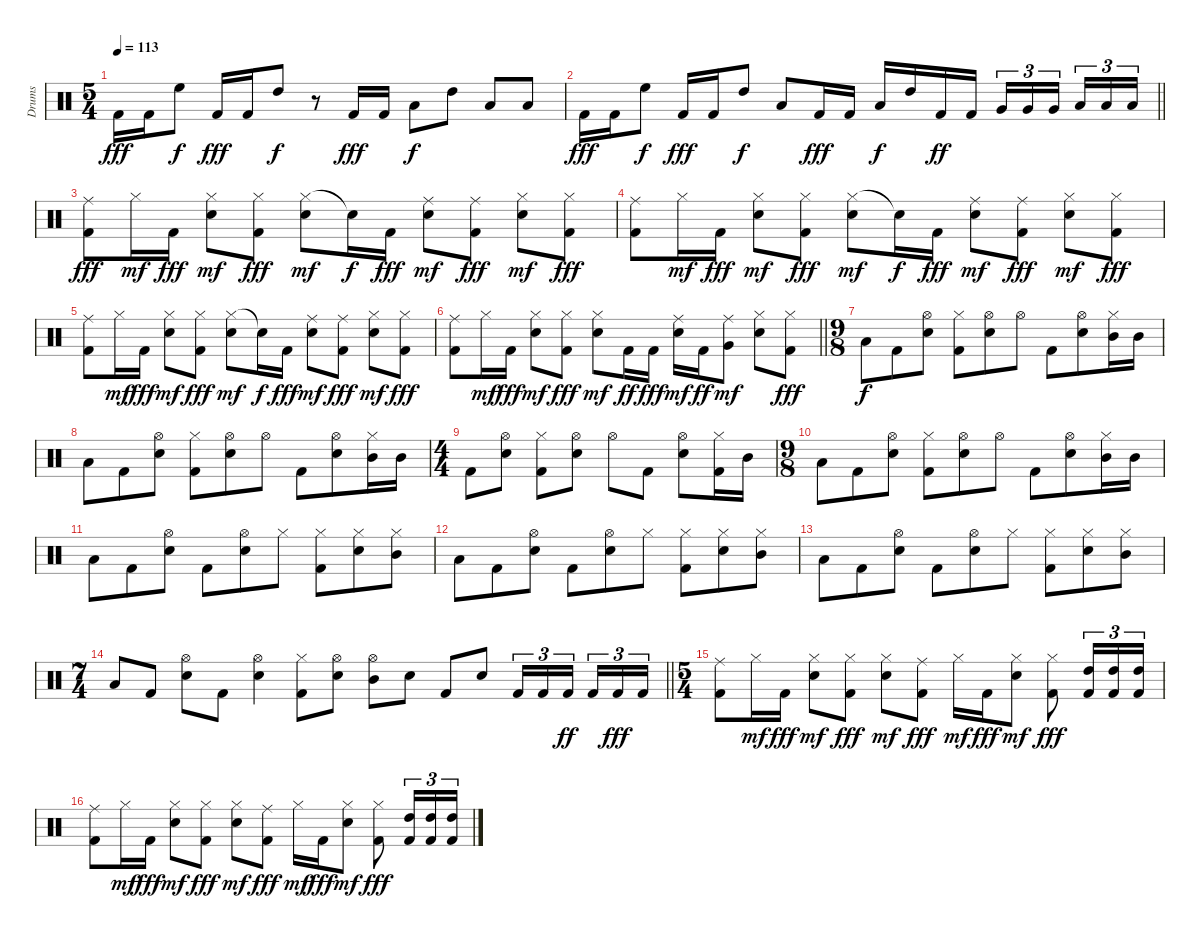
\track ("Drums" "Drums") {instrument percussion}
\staff {score}
\articulation defaults
\ts (5 4)
\tempo 113
\clef neutral
\ks c "Kick (hit) 2".16{dy fff} "Kick (hit) 2".16 "High Floor Tom (hit)".8{dy f} "Kick (hit) 2".16{dy fff} "Kick (hit) 2".16 "High Tom (hit)".8{dy f}
r.8 "Kick (hit) 2".16{dy fff} "Kick (hit) 2".16 "Low Tom (hit)".8{dy f} "High Tom (hit)".8 "Low Tom (hit)".8 "Low Floor Tom (hit)".8 |
\barLineRight lightlight "Kick (hit) 2".16{dy fff} "Kick (hit) 2".16 "High Floor Tom (hit)".8{dy f} "Kick (hit) 2".16{dy fff} "Kick (hit) 2".16 "High Tom (hit)".8{dy f} "Low Floor Tom (hit)".8 "Kick (hit) 2".16{dy fff} "Kick (hit) 2".16 "Low Tom (hit)".16{dy f} "High Tom (hit)".16 "Kick (hit) 2".16{dy ff} "Kick (hit) 2".16 "Very Low Tom (hit)".16{tu (3 2)} "Very Low Tom (hit)".16{tu (3 2)} "Very Low Tom (hit)".16{tu (3 2) beam splitsecondary} "Low Floor Tom (hit)".16{tu (3 2)} "Low Floor Tom (hit)".16{tu (3 2)} "Low Floor Tom (hit)".16{tu (3 2)}
|
\section ("" "")
("Ride (middle)" "Kick (hit) 2").8{dy fff} "Hi-Hat (closed)".16{dy mf} "Kick (hit) 2".16{dy fff} ("Hi-Hat (closed)" "Snare (hit) 2").8{dy mf} ("Hi-Hat (closed)" "Kick (hit) 2").8{dy fff} ("Hi-Hat (closed)" "Snare (hit) 2").8{dy mf} "Snare (hit)"{t}.16{dy f} "Kick (hit) 2".16{dy fff} ("Ride (middle)" "Snare (hit) 2").8{dy mf} ("Ride (middle)" "Kick (hit) 2").8{dy fff} ("Hi-Hat (closed)" "Snare (hit) 2").8{dy mf} ("Hi-Hat (closed)" "Kick (hit) 2").8{dy fff} |
("Ride (middle)" "Kick (hit) 2").8 "Hi-Hat (closed)".16{dy mf} "Kick (hit) 2".16{dy fff} ("Hi-Hat (closed)" "Snare (hit) 2").8{dy mf} ("Hi-Hat (closed)" "Kick (hit) 2").8{dy fff} ("Hi-Hat (closed)" "Snare (hit) 2").8{dy mf} "Snare (hit)"{t}.16{dy f} "Kick (hit) 2".16{dy fff} ("Ride (middle)" "Snare (hit) 2").8{dy mf} ("Ride (middle)" "Kick (hit) 2").8{dy fff} ("Hi-Hat (closed)" "Snare (hit) 2").8{dy mf} ("Hi-Hat (closed)" "Kick (hit) 2").8{dy fff} |
("Ride (middle)" "Kick (hit) 2").8 "Hi-Hat (closed)".16{dy mf} "Kick (hit) 2".16{dy fff} ("Hi-Hat (closed)" "Snare (hit) 2").8{dy mf} ("Hi-Hat (closed)" "Kick (hit) 2").8{dy fff} ("Hi-Hat (closed)" "Snare (hit) 2").8{dy mf} "Snare (hit)"{t}.16{dy f} "Kick (hit) 2".16{dy fff} ("Ride (middle)" "Snare (hit) 2").8{dy mf} ("Ride (middle)" "Kick (hit) 2").8{dy fff} ("Hi-Hat (closed)" "Snare (hit) 2").8{dy mf} ("Hi-Hat (closed)" "Kick (hit) 2").8{dy fff} |
\barLineRight lightlight
("Ride (middle)" "Kick (hit) 2").8 "Hi-Hat (closed)".16{dy mf} "Kick (hit) 2".16{dy fff} ("Hi-Hat (closed)" "Snare (hit) 2").8{dy mf} ("Hi-Hat (closed)" "Kick (hit) 2").8{dy fff} ("Hi-Hat (closed)" "Snare (hit) 2").8{dy mf} "Kick (hit) 2".16{dy ff} "Kick (hit) 2".16{dy fff} ("Ride (middle)" "Snare (hit) 2").16{dy mf} "Kick (hit) 2".16{dy ff} ("Ride (middle)" "Very Low Tom (hit)").8{dy mf} ("Hi-Hat (closed)" "Snare (hit) 2").8 ("Hi-Hat (closed)" "Kick (hit) 2").8{dy fff} |
\ts (9 8)
\section ("" "")
"Low Tom (hit)".8{dy f} "Kick (hit) 2".8 ("Hi-Hat (open)" "Snare (hit) 2").8 ("Hi-Hat (closed)" "Kick (hit) 2").8 ("Hi-Hat (open)" "Snare (hit) 2").8 "Hi-Hat (open)".8 "Kick (hit) 2".8 ("Hi-Hat (open)" "Snare (hit) 2").8 ("Hi-Hat (closed)" "Mid Tom (hit)").16 "Mid Tom (hit)".16 |
"Low Tom (hit)".8 "Kick (hit) 2".8 ("Hi-Hat (open)" "Snare (hit) 2").8 ("Hi-Hat (closed)" "Kick (hit) 2").8 ("Hi-Hat (open)" "Snare (hit) 2").8 "Hi-Hat (open)".8 "Kick (hit) 2".8 ("Hi-Hat (open)" "Snare (hit) 2").8 ("Hi-Hat (closed)" "Mid Tom (hit)").16 "Mid Tom (hit)".16 |
\ts (4 4)
"Kick (hit) 2".8 ("Hi-Hat (open)" "Snare (hit) 2").8 ("Hi-Hat (closed)" "Kick (hit) 2").8 ("Hi-Hat (open)" "Snare (hit) 2").8 "Hi-Hat (open)".8 "Kick (hit) 2".8 ("Hi-Hat (open)" "Snare (hit) 2").8 ("Hi-Hat (closed)" "Kick (hit) 2").16 "Mid Tom (hit)".16 |
\ts (9 8)
"Low Tom (hit)".8 "Kick (hit) 2".8 ("Hi-Hat (open)" "Snare (hit) 2").8 ("Hi-Hat (closed)" "Kick (hit) 2").8 ("Hi-Hat (open)" "Snare (hit) 2").8 "Hi-Hat (open)".8 "Kick (hit) 2".8 ("Hi-Hat (open)" "Snare (hit) 2").8 ("Hi-Hat (closed)" "Mid Tom (hit)").16 "Mid Tom (hit)".16 |
"Low Tom (hit)".8 "Kick (hit) 2".8 ("Hi-Hat (open)" "Snare (hit) 2").8 "Kick (hit) 2".8 ("Hi-Hat (open)" "Snare (hit) 2").8 "Hi-Hat (closed)".8 ("Hi-Hat (closed)" "Kick (hit) 2").8 ("Hi-Hat (closed)" "Snare (hit) 2").8 ("Hi-Hat (closed)" "Mid Tom (hit)").8 |
"Low Tom (hit)".8 "Kick (hit) 2".8 ("Hi-Hat (open)" "Snare (hit) 2").8 "Kick (hit) 2".8 ("Hi-Hat (open)" "Snare (hit) 2").8 "Hi-Hat (closed)".8 ("Hi-Hat (closed)" "Kick (hit) 2").8 ("Hi-Hat (closed)" "Snare (hit) 2").8 ("Hi-Hat (closed)" "Mid Tom (hit)").8 |
"Low Tom (hit)".8 "Kick (hit) 2".8 ("Hi-Hat (open)" "Snare (hit) 2").8 "Kick (hit) 2".8 ("Hi-Hat (open)" "Snare (hit) 2").8 "Hi-Hat (closed)".8 ("Hi-Hat (closed)" "Kick (hit) 2").8 ("Hi-Hat (closed)" "Snare (hit) 2").8 ("Hi-Hat (closed)" "Mid Tom (hit)").8 |
\ts (7 4)
\barLineRight lightlight "Low Tom (hit)".8 "Kick (hit) 2".8
("Hi-Hat (open)" "Snare (hit) 2").8 "Kick (hit) 2".8 ("Hi-Hat (open)" "Snare (hit) 2").4 ("Hi-Hat (closed)" "Kick (hit) 2").8 ("Hi-Hat (open)" "Snare (hit) 2").8 ("Hi-Hat (open)" "Mid Tom (hit)").8 "Snare (hit) 2".8 "Kick (hit) 2".8 "Snare (hit) 2".8 "Kick (hit) 2".16{tu (3 2)} "Kick (hit) 2".16{tu (3 2)} "Kick (hit) 2".16{tu (3 2) dy ff beam splitsecondary} "Kick (hit) 2".16{tu (3 2)} "Kick (hit) 2".16{tu (3 2) dy fff} "Kick (hit) 2".16{tu (3 2)} |
\ts (5 4)
\section ("" "")
("Ride (middle)" "Kick (hit) 2").8 "Hi-Hat (closed)".16{dy mf} "Kick (hit) 2".16{dy fff} ("Hi-Hat (closed)" "Snare (hit) 2").8{dy mf} ("Hi-Hat (closed)" "Kick (hit) 2").8{dy fff} ("Hi-Hat (closed)" "Snare (hit) 2").8{dy mf} ("Ride (middle)" "Kick (hit) 2").8{dy fff} "Hi-Hat (closed)".16{dy mf} "Kick (hit) 2".16{dy fff} ("Hi-Hat (closed)" "Snare (hit) 2").8{dy mf} ("Hi-Hat (closed)" "Kick (hit) 2").8{dy fff} ("High Tom (hit)" "Kick (hit) 2").16{tu (3 2)} ("High Tom (hit)" "Kick (hit) 2").16{tu (3 2)} ("High Tom (hit)" "Kick (hit) 2").16{tu (3 2)} |
("Ride (middle)" "Kick (hit) 2").8 "Hi-Hat (closed)".16{dy mf} "Kick (hit) 2".16{dy fff} ("Hi-Hat (closed)" "Snare (hit) 2").8{dy mf} ("Hi-Hat (closed)" "Kick (hit) 2").8{dy fff} ("Hi-Hat (closed)" "Snare (hit) 2").8{dy mf} ("Ride (middle)" "Kick (hit) 2").8{dy fff} "Hi-Hat (closed)".16{dy mf} "Kick (hit) 2".16{dy fff} ("Hi-Hat (closed)" "Snare (hit) 2").8{dy mf} ("Hi-Hat (closed)" "Kick (hit) 2").8{dy fff} ("High Tom (hit)" "Kick (hit) 2").16{tu (3 2)} ("High Tom (hit)" "Kick (hit) 2").16{tu (3 2)} ("High Tom (hit)" "Kick (hit) 2").16{tu (3 2)}
